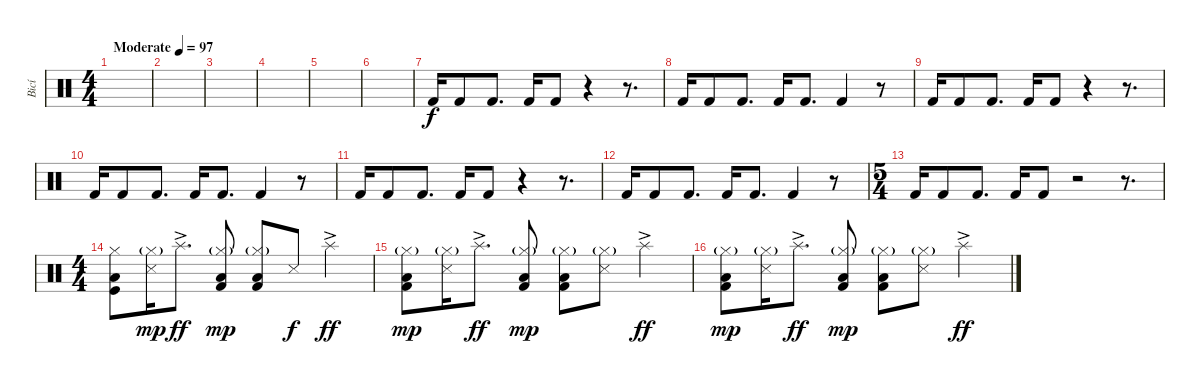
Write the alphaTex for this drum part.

\track ("Bicí" "Bicí") {instrument percussion}
\staff {score}
\articulation defaults
\ts (4 4)
\tempo (97 "Moderate")
\clef neutral
\ks c
|
|
|
|
|
|
"Kick (hit) 2".16 "Kick (hit) 2".8 "Kick (hit) 2".8{d} "Kick (hit) 2".16 "Kick (hit) 2".8 r.4 r.8{d} |
"Kick (hit) 2".16 "Kick (hit) 2".8 "Kick (hit) 2".8{d} "Kick (hit) 2".16 "Kick (hit) 2".8{d} "Kick (hit) 2".4 r.8 |
"Kick (hit) 2".16 "Kick (hit) 2".8 "Kick (hit) 2".8{d} "Kick (hit) 2".16 "Kick (hit) 2".8 r.4 r.8{d} |
"Kick (hit) 2".16 "Kick (hit) 2".8 "Kick (hit) 2".8{d} "Kick (hit) 2".16 "Kick (hit) 2".8{d} "Kick (hit) 2".4 r.8 |
"Kick (hit) 2".16 "Kick (hit) 2".8 "Kick (hit) 2".8{d} "Kick (hit) 2".16 "Kick (hit) 2".8 r.4 r.8{d} |
"Kick (hit) 2".16 "Kick (hit) 2".8 "Kick (hit) 2".8{d} "Kick (hit) 2".16 "Kick (hit) 2".8{d} "Kick (hit) 2".4 r.8 |
\ts (5 4)
"Kick (hit) 2".16 "Kick (hit) 2".8 "Kick (hit) 2".8{d} "Kick (hit) 2".16 "Kick (hit) 2".8 r.2 r.8{d} |
\ts (4 4)
("Hi-Hat (closed)" "Low Floor Tom (hit)" "Kick (hit)").8{volume 13} ("Hi-Hat (closed)"{g} "Snare (side stick) 3").16{dy mp} "Splash (hit)"{ac}.8{d dy ff} ("Hi-Hat (closed)"{g} "Low Floor Tom (hit)" "Kick (hit) 2").8{dy mp} ("Hi-Hat (closed)"{g} "Low Floor Tom (hit)" "Kick (hit) 2").8 "Snare (side stick) 3".8{dy f} "Splash (hit)"{ac}.4{dy ff} |
("Hi-Hat (closed)"{g} "Low Floor Tom (hit)" "Kick (hit) 2").8{dy mp} ("Hi-Hat (closed)"{g} "Snare (side stick) 3").16 "Splash (hit)"{ac}.8{d dy ff} ("Hi-Hat (closed)"{g} "Low Floor Tom (hit)" "Kick (hit) 2").8{dy mp} ("Hi-Hat (closed)"{g} "Low Floor Tom (hit)" "Kick (hit) 2").8 ("Hi-Hat (closed)"{g} "Snare (side stick) 3").8 "Splash (hit)"{ac}.4{dy ff} |
("Hi-Hat (closed)"{g} "Low Floor Tom (hit)" "Kick (hit) 2").8{dy mp} ("Hi-Hat (closed)"{g} "Snare (side stick) 3").16 "Splash (hit)"{ac}.8{d dy ff} ("Hi-Hat (closed)"{g} "Low Floor Tom (hit)" "Kick (hit) 2").8{dy mp} ("Hi-Hat (closed)"{g} "Low Floor Tom (hit)" "Kick (hit) 2").8 ("Hi-Hat (closed)"{g} "Snare (side stick) 3").8 "Splash (hit)"{ac}.4{dy ff}
